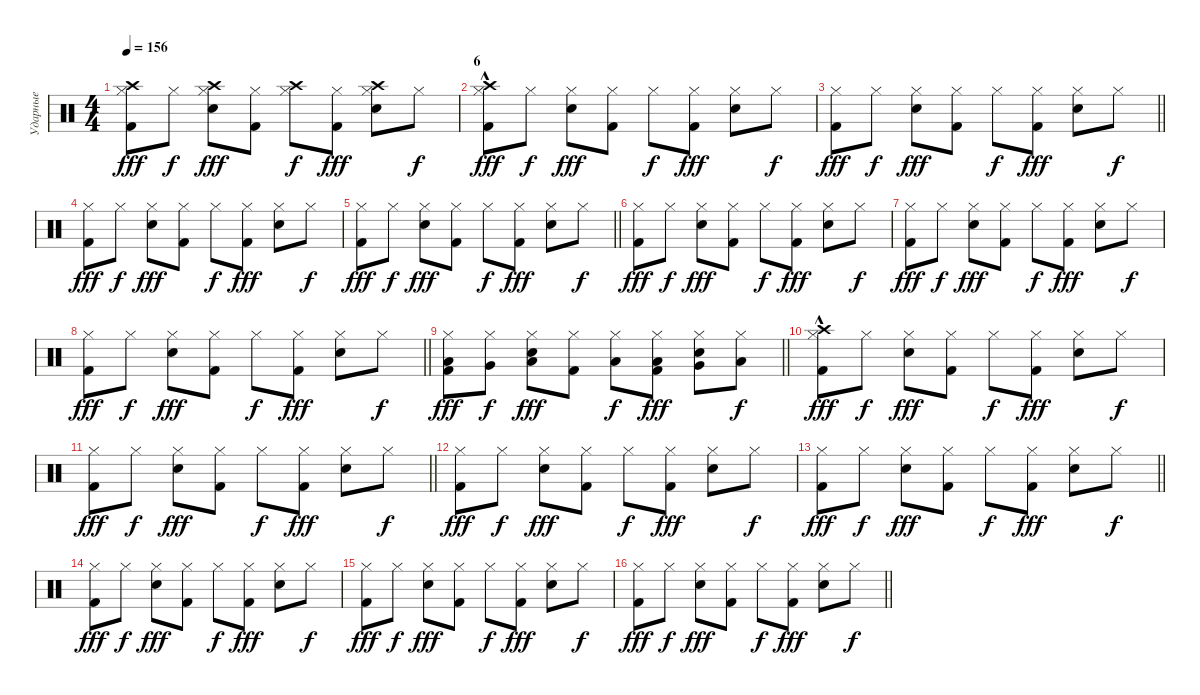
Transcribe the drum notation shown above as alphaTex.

\track ("Ударные" "Ударные") {instrument percussion}
\staff {score}
\articulation defaults
\ts (4 4)
\tempo 156
\clef neutral
\ks c
("Hi-Hat (closed)" "Kick (hit) 2" "Crash high (hit)").8{dy fff} "Hi-Hat (closed)".8{dy f} ("Hi-Hat (closed)" "Snare (hit) 2" "Crash high (hit)").8{dy fff} ("Hi-Hat (closed)" "Kick (hit) 2").8 ("Hi-Hat (closed)" "Crash high (hit)").8{dy f} ("Hi-Hat (closed)" "Kick (hit) 2").8{dy fff} ("Hi-Hat (closed)" "Snare (hit) 2" "Crash high (hit)").8 "Hi-Hat (closed)".8{dy f} |
\section ("" "6")
("Hi-Hat (closed)" "Kick (hit) 2" "Crash high (hit)"{hac}).8{dy fff} "Hi-Hat (closed)".8{dy f} ("Hi-Hat (closed)" "Snare (hit) 2").8{dy fff} ("Hi-Hat (closed)" "Kick (hit) 2").8 "Hi-Hat (closed)".8{dy f} ("Hi-Hat (closed)" "Kick (hit) 2").8{dy fff} ("Hi-Hat (closed)" "Snare (hit) 2").8 "Hi-Hat (closed)".8{dy f} |
\barLineRight lightlight
("Hi-Hat (closed)" "Kick (hit) 2").8{dy fff} "Hi-Hat (closed)".8{dy f} ("Hi-Hat (closed)" "Snare (hit) 2").8{dy fff} ("Hi-Hat (closed)" "Kick (hit) 2").8 "Hi-Hat (closed)".8{dy f} ("Hi-Hat (closed)" "Kick (hit) 2").8{dy fff} ("Hi-Hat (closed)" "Snare (hit) 2").8 "Hi-Hat (closed)".8{dy f} |
("Hi-Hat (closed)" "Kick (hit) 2").8{dy fff} "Hi-Hat (closed)".8{dy f} ("Hi-Hat (closed)" "Snare (hit) 2").8{dy fff} ("Hi-Hat (closed)" "Kick (hit) 2").8 "Hi-Hat (closed)".8{dy f} ("Hi-Hat (closed)" "Kick (hit) 2").8{dy fff} ("Hi-Hat (closed)" "Snare (hit) 2").8 "Hi-Hat (closed)".8{dy f} |
\barLineRight lightlight
("Hi-Hat (closed)" "Kick (hit) 2").8{dy fff} "Hi-Hat (closed)".8{dy f} ("Hi-Hat (closed)" "Snare (hit) 2").8{dy fff} ("Hi-Hat (closed)" "Kick (hit) 2").8 "Hi-Hat (closed)".8{dy f} ("Hi-Hat (closed)" "Kick (hit) 2").8{dy fff} ("Hi-Hat (closed)" "Snare (hit) 2").8 "Hi-Hat (closed)".8{dy f} |
("Hi-Hat (closed)" "Kick (hit) 2").8{dy fff} "Hi-Hat (closed)".8{dy f} ("Hi-Hat (closed)" "Snare (hit) 2").8{dy fff} ("Hi-Hat (closed)" "Kick (hit) 2").8 "Hi-Hat (closed)".8{dy f} ("Hi-Hat (closed)" "Kick (hit) 2").8{dy fff} ("Hi-Hat (closed)" "Snare (hit) 2").8 "Hi-Hat (closed)".8{dy f} |
("Hi-Hat (closed)" "Kick (hit) 2").8{dy fff} "Hi-Hat (closed)".8{dy f} ("Hi-Hat (closed)" "Snare (hit) 2").8{dy fff} ("Hi-Hat (closed)" "Kick (hit) 2").8 "Hi-Hat (closed)".8{dy f} ("Hi-Hat (closed)" "Kick (hit) 2").8{dy fff} ("Hi-Hat (closed)" "Snare (hit) 2").8 "Hi-Hat (closed)".8{dy f} |
\barLineRight lightlight
("Hi-Hat (closed)" "Kick (hit) 2").8{dy fff} "Hi-Hat (closed)".8{dy f} ("Hi-Hat (closed)" "Snare (hit) 2").8{dy fff} ("Hi-Hat (closed)" "Kick (hit) 2").8 "Hi-Hat (closed)".8{dy f} ("Hi-Hat (closed)" "Kick (hit) 2").8{dy fff} ("Hi-Hat (closed)" "Snare (hit) 2").8 "Hi-Hat (closed)".8{dy f} |
\barLineRight lightlight
("Hi-Hat (closed)" "Kick (hit) 2" "Low Floor Tom (hit)").8{dy fff} ("Hi-Hat (closed)" "Very Low Tom (hit)").8{dy f} ("Hi-Hat (closed)" "Snare (hit) 2" "Low Tom (hit)").8{dy fff} ("Hi-Hat (closed)" "Kick (hit) 2").8 ("Hi-Hat (closed)" "Low Floor Tom (hit)").8{dy f} ("Hi-Hat (closed)" "Kick (hit) 2" "Low Floor Tom (hit)").8{dy fff} ("Hi-Hat (closed)" "Snare (hit) 2" "Very Low Tom (hit)").8 ("Hi-Hat (closed)" "Low Tom (hit)").8{dy f} |
("Hi-Hat (closed)" "Kick (hit) 2" "Crash high (hit)"{hac}).8{dy fff} "Hi-Hat (closed)".8{dy f} ("Hi-Hat (closed)" "Snare (hit) 2").8{dy fff} ("Hi-Hat (closed)" "Kick (hit) 2").8 "Hi-Hat (closed)".8{dy f} ("Hi-Hat (closed)" "Kick (hit) 2").8{dy fff} ("Hi-Hat (closed)" "Snare (hit) 2").8 "Hi-Hat (closed)".8{dy f} |
\barLineRight lightlight
("Hi-Hat (closed)" "Kick (hit) 2").8{dy fff} "Hi-Hat (closed)".8{dy f} ("Hi-Hat (closed)" "Snare (hit) 2").8{dy fff} ("Hi-Hat (closed)" "Kick (hit) 2").8 "Hi-Hat (closed)".8{dy f} ("Hi-Hat (closed)" "Kick (hit) 2").8{dy fff} ("Hi-Hat (closed)" "Snare (hit) 2").8 "Hi-Hat (closed)".8{dy f} |
("Hi-Hat (closed)" "Kick (hit) 2").8{dy fff} "Hi-Hat (closed)".8{dy f} ("Hi-Hat (closed)" "Snare (hit) 2").8{dy fff} ("Hi-Hat (closed)" "Kick (hit) 2").8 "Hi-Hat (closed)".8{dy f} ("Hi-Hat (closed)" "Kick (hit) 2").8{dy fff} ("Hi-Hat (closed)" "Snare (hit) 2").8 "Hi-Hat (closed)".8{dy f} |
\barLineRight lightlight
("Hi-Hat (closed)" "Kick (hit) 2").8{dy fff} "Hi-Hat (closed)".8{dy f} ("Hi-Hat (closed)" "Snare (hit) 2").8{dy fff} ("Hi-Hat (closed)" "Kick (hit) 2").8 "Hi-Hat (closed)".8{dy f} ("Hi-Hat (closed)" "Kick (hit) 2").8{dy fff} ("Hi-Hat (closed)" "Snare (hit) 2").8 "Hi-Hat (closed)".8{dy f} |
("Hi-Hat (closed)" "Kick (hit) 2").8{dy fff} "Hi-Hat (closed)".8{dy f} ("Hi-Hat (closed)" "Snare (hit) 2").8{dy fff} ("Hi-Hat (closed)" "Kick (hit) 2").8 "Hi-Hat (closed)".8{dy f} ("Hi-Hat (closed)" "Kick (hit) 2").8{dy fff} ("Hi-Hat (closed)" "Snare (hit) 2").8 "Hi-Hat (closed)".8{dy f} |
("Hi-Hat (closed)" "Kick (hit) 2").8{dy fff} "Hi-Hat (closed)".8{dy f} ("Hi-Hat (closed)" "Snare (hit) 2").8{dy fff} ("Hi-Hat (closed)" "Kick (hit) 2").8 "Hi-Hat (closed)".8{dy f} ("Hi-Hat (closed)" "Kick (hit) 2").8{dy fff} ("Hi-Hat (closed)" "Snare (hit) 2").8 "Hi-Hat (closed)".8{dy f} |
\barLineRight lightlight
("Hi-Hat (closed)" "Kick (hit) 2").8{dy fff} "Hi-Hat (closed)".8{dy f} ("Hi-Hat (closed)" "Snare (hit) 2").8{dy fff} ("Hi-Hat (closed)" "Kick (hit) 2").8 "Hi-Hat (closed)".8{dy f} ("Hi-Hat (closed)" "Kick (hit) 2").8{dy fff} ("Hi-Hat (closed)" "Snare (hit) 2").8 "Hi-Hat (closed)".8{dy f}
